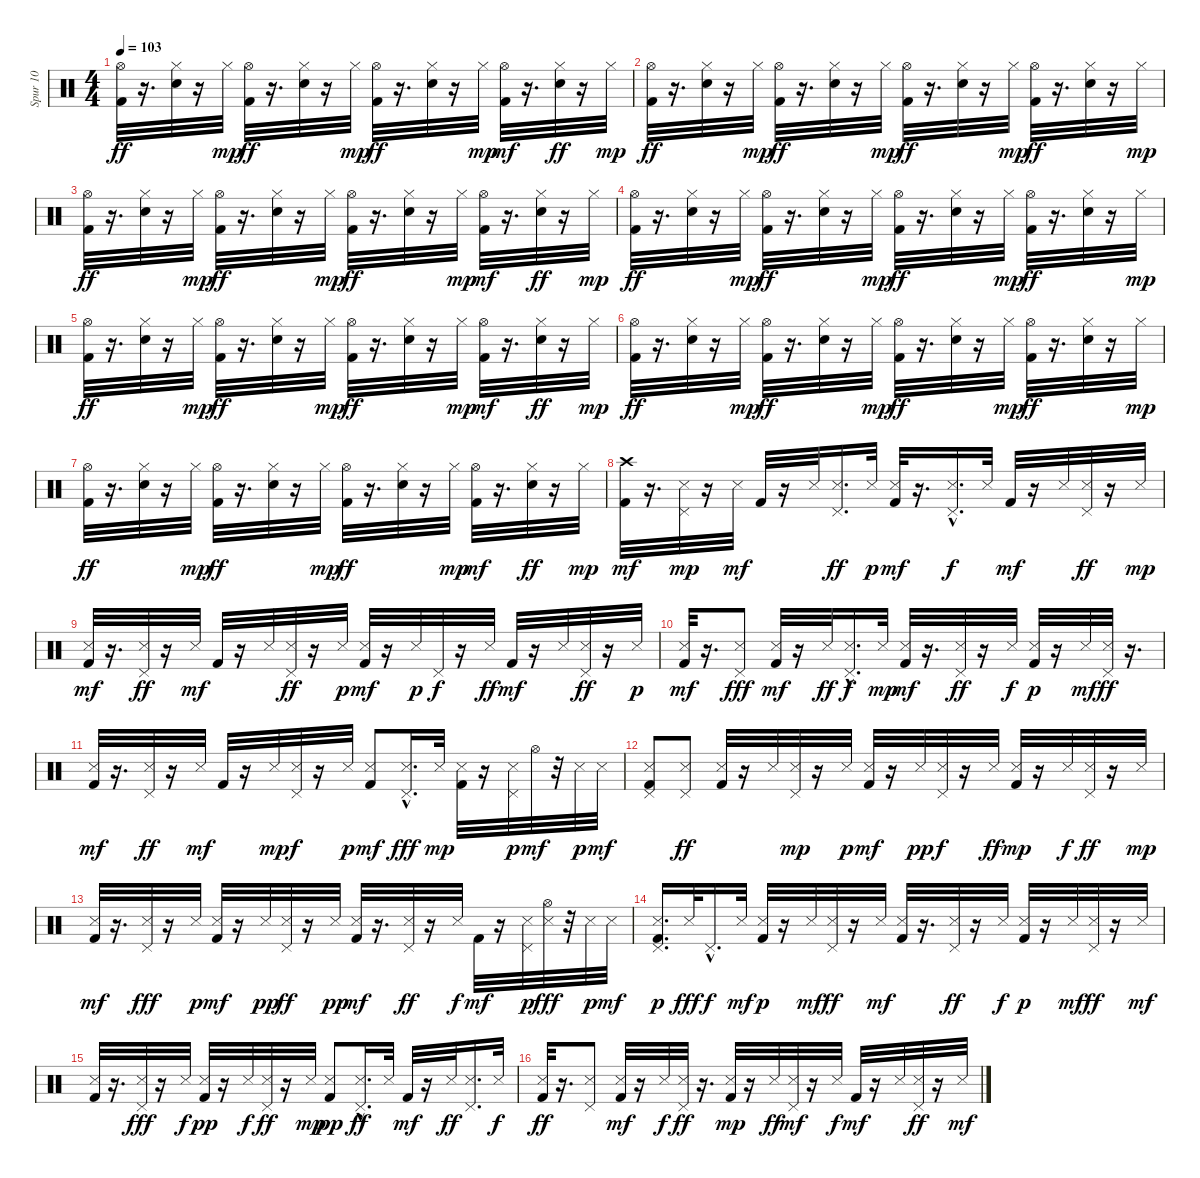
\track ("Spur 10" "Spur 10") {instrument percussion}
\staff {score}
\articulation defaults
\ts (4 4)
\tempo 103
\clef neutral
\ks c
("Kick (hit) 2" "Hi-Hat (open)").32{dy ff} r.16{d} ("Hi-Hat (closed)" "Electric Snare (hit)").32 r.16 "Hi-Hat (closed)".32{dy mp} ("Kick (hit) 2" "Hi-Hat (open)").32{dy ff} r.16{d} ("Hi-Hat (closed)" "Electric Snare (hit)").32 r.16 "Hi-Hat (closed)".32{dy mp} ("Kick (hit) 2" "Hi-Hat (open)").32{dy ff} r.16{d} ("Hi-Hat (closed)" "Electric Snare (hit)").32 r.16 "Hi-Hat (closed)".32{dy mp} ("Kick (hit) 2" "Hi-Hat (open)").32{dy mf} r.16{d} ("Hi-Hat (closed)" "Electric Snare (hit)").32{dy ff} r.16 "Hi-Hat (closed)".32{dy mp} |
("Kick (hit) 2" "Hi-Hat (open)").32{dy ff} r.16{d} ("Hi-Hat (closed)" "Electric Snare (hit)").32 r.16 "Hi-Hat (closed)".32{dy mp} ("Kick (hit) 2" "Hi-Hat (open)").32{dy ff} r.16{d} ("Hi-Hat (closed)" "Electric Snare (hit)").32 r.16 "Hi-Hat (closed)".32{dy mp} ("Kick (hit) 2" "Hi-Hat (open)").32{dy ff} r.16{d} ("Hi-Hat (closed)" "Electric Snare (hit)").32 r.16 "Hi-Hat (closed)".32{dy mp} ("Kick (hit) 2" "Hi-Hat (open)").32{dy ff} r.16{d} ("Hi-Hat (closed)" "Electric Snare (hit)").32 r.16 "Hi-Hat (closed)".32{dy mp} |
("Kick (hit) 2" "Hi-Hat (open)").32{dy ff} r.16{d} ("Hi-Hat (closed)" "Electric Snare (hit)").32 r.16 "Hi-Hat (closed)".32{dy mp} ("Kick (hit) 2" "Hi-Hat (open)").32{dy ff} r.16{d} ("Hi-Hat (closed)" "Electric Snare (hit)").32 r.16 "Hi-Hat (closed)".32{dy mp} ("Kick (hit) 2" "Hi-Hat (open)").32{dy ff} r.16{d} ("Hi-Hat (closed)" "Electric Snare (hit)").32 r.16 "Hi-Hat (closed)".32{dy mp} ("Kick (hit) 2" "Hi-Hat (open)").32{dy mf} r.16{d} ("Hi-Hat (closed)" "Electric Snare (hit)").32{dy ff} r.16 "Hi-Hat (closed)".32{dy mp} |
("Kick (hit) 2" "Hi-Hat (open)").32{dy ff} r.16{d} ("Hi-Hat (closed)" "Electric Snare (hit)").32 r.16 "Hi-Hat (closed)".32{dy mp} ("Kick (hit) 2" "Hi-Hat (open)").32{dy ff} r.16{d} ("Hi-Hat (closed)" "Electric Snare (hit)").32 r.16 "Hi-Hat (closed)".32{dy mp} ("Kick (hit) 2" "Hi-Hat (open)").32{dy ff} r.16{d} ("Hi-Hat (closed)" "Electric Snare (hit)").32 r.16 "Hi-Hat (closed)".32{dy mp} ("Kick (hit) 2" "Hi-Hat (open)").32{dy ff} r.16{d} ("Hi-Hat (closed)" "Electric Snare (hit)").32 r.16 "Hi-Hat (closed)".32{dy mp} |
("Kick (hit) 2" "Hi-Hat (open)").32{dy ff} r.16{d} ("Hi-Hat (closed)" "Electric Snare (hit)").32 r.16 "Hi-Hat (closed)".32{dy mp} ("Kick (hit) 2" "Hi-Hat (open)").32{dy ff} r.16{d} ("Hi-Hat (closed)" "Electric Snare (hit)").32 r.16 "Hi-Hat (closed)".32{dy mp} ("Kick (hit) 2" "Hi-Hat (open)").32{dy ff} r.16{d} ("Hi-Hat (closed)" "Electric Snare (hit)").32 r.16 "Hi-Hat (closed)".32{dy mp} ("Kick (hit) 2" "Hi-Hat (open)").32{dy mf} r.16{d} ("Hi-Hat (closed)" "Electric Snare (hit)").32{dy ff} r.16 "Hi-Hat (closed)".32{dy mp} |
("Kick (hit) 2" "Hi-Hat (open)").32{dy ff} r.16{d} ("Hi-Hat (closed)" "Electric Snare (hit)").32 r.16 "Hi-Hat (closed)".32{dy mp} ("Kick (hit) 2" "Hi-Hat (open)").32{dy ff} r.16{d} ("Hi-Hat (closed)" "Electric Snare (hit)").32 r.16 "Hi-Hat (closed)".32{dy mp} ("Kick (hit) 2" "Hi-Hat (open)").32{dy ff} r.16{d} ("Hi-Hat (closed)" "Electric Snare (hit)").32 r.16 "Hi-Hat (closed)".32{dy mp} ("Kick (hit) 2" "Hi-Hat (open)").32{dy ff} r.16{d} ("Hi-Hat (closed)" "Electric Snare (hit)").32 r.16 "Hi-Hat (closed)".32{dy mp} |
("Kick (hit) 2" "Hi-Hat (open)").32{dy ff} r.16{d} ("Hi-Hat (closed)" "Electric Snare (hit)").32 r.16 "Hi-Hat (closed)".32{dy mp} ("Kick (hit) 2" "Hi-Hat (open)").32{dy ff} r.16{d} ("Hi-Hat (closed)" "Electric Snare (hit)").32 r.16 "Hi-Hat (closed)".32{dy mp} ("Kick (hit) 2" "Hi-Hat (open)").32{dy ff} r.16{d} ("Hi-Hat (closed)" "Electric Snare (hit)").32 r.16 "Hi-Hat (closed)".32{dy mp} ("Kick (hit) 2" "Hi-Hat (open)").32{dy mf} r.16{d} ("Hi-Hat (closed)" "Electric Snare (hit)").32{dy ff} r.16 "Hi-Hat (closed)".32{dy mp} |
("Kick (hit) 2" "Crash high (hit)").32{dy mf} r.16{d} ("Pedal Hi-Hat (hit)" "Metronome (hit)").32{dy mp} r.16 "Metronome (hit)".32{dy mf} "Kick (hit) 2".32 r.16 "Metronome (hit)".32 ("Metronome (hit)" "Pedal Hi-Hat (hit)").16{d dy ff} "Metronome (hit)".32{dy p} ("Metronome (hit)" "Kick (hit) 2").32{dy mf} r.16{d} ("Metronome (hit)" "Pedal Hi-Hat (hit)"{hac}).16{d dy f} "Metronome (hit)".32 "Kick (hit) 2".32{dy mf} r.16 "Metronome (hit)".32 ("Metronome (hit)" "Pedal Hi-Hat (hit)").32{dy ff} r.16 "Metronome (hit)".32{dy mp} |
("Metronome (hit)" "Kick (hit) 2").32{dy mf} r.16{d} ("Metronome (hit)" "Pedal Hi-Hat (hit)").32{dy ff} r.16 "Metronome (hit)".32{dy mf} "Kick (hit) 2".32 r.16 "Metronome (hit)".32 ("Metronome (hit)" "Pedal Hi-Hat (hit)").32{dy ff} r.16 "Metronome (hit)".32{dy p} ("Metronome (hit)" "Kick (hit) 2").32{dy mf} r.16 "Metronome (hit)".32{dy p} "Pedal Hi-Hat (hit)".32{dy f} r.16 "Metronome (hit)".32{dy ff} "Kick (hit) 2".32{dy mf} r.16 "Metronome (hit)".32 ("Metronome (hit)" "Pedal Hi-Hat (hit)").32{dy ff} r.16 "Metronome (hit)".32{dy p} |
("Metronome (hit)" "Kick (hit) 2").32{dy mf} r.16{d} ("Pedal Hi-Hat (hit)" "Metronome (hit)").8{dy fff} ("Kick (hit) 2" "Metronome (hit)").32{dy mf} r.16 "Metronome (hit)".32{dy ff} ("Pedal Hi-Hat (hit)"{hac} "Metronome (hit)").16{d dy f} "Metronome (hit)".32{dy mp} ("Kick (hit) 2" "Metronome (hit)").32{dy mf} r.16{d} ("Metronome (hit)" "Pedal Hi-Hat (hit)").32{dy ff} r.16 "Metronome (hit)".32{dy f} ("Kick (hit) 2" "Metronome (hit)").32{dy p} r.16 "Metronome (hit)".32{dy mf} ("Metronome (hit)" "Pedal Hi-Hat (hit)").32{dy ff} r.16{d} |
("Kick (hit) 2" "Metronome (hit)").32{dy mf} r.16{d} ("Metronome (hit)" "Pedal Hi-Hat (hit)").32{dy ff} r.16 "Metronome (hit)".32{dy mf} "Kick (hit) 2".32 r.16 "Metronome (hit)".32{dy mp} ("Pedal Hi-Hat (hit)" "Metronome (hit)").32{dy f} r.16 "Metronome (hit)".32{dy p} ("Kick (hit) 2" "Metronome (hit)").8{dy mf} ("Metronome (hit)"{hac} "Pedal Hi-Hat (hit)").16{d dy fff} "Metronome (hit)".32{dy mp} ("Kick (hit) 2" "Metronome (hit)").32 r.16 ("Metronome (hit)" "Pedal Hi-Hat (hit)").32{dy p} "Hi-Hat (open)".32{dy mf} r.32 "Metronome (hit)".32{dy p} "Metronome (hit)".32{dy mf} |
("Kick (hit) 2" "Pedal Hi-Hat (hit)" "Metronome (hit)").8 ("Metronome (hit)" "Pedal Hi-Hat (hit)").8{dy ff} ("Kick (hit) 2" "Metronome (hit)").32 r.16 "Metronome (hit)".32 ("Pedal Hi-Hat (hit)" "Metronome (hit)").32{dy mp} r.16 "Metronome (hit)".32{dy p} ("Kick (hit) 2" "Metronome (hit)").32{dy mf} r.16 "Metronome (hit)".32{dy pp} ("Pedal Hi-Hat (hit)" "Metronome (hit)").32{dy f} r.16 "Metronome (hit)".32{dy ff} ("Kick (hit) 2" "Metronome (hit)").32{dy mp} r.16 "Metronome (hit)".32{dy f} ("Metronome (hit)" "Pedal Hi-Hat (hit)").32{dy ff} r.16 "Metronome (hit)".32{dy mp} |
("Metronome (hit)" "Kick (hit) 2").32{dy mf} r.16{d} ("Metronome (hit)" "Pedal Hi-Hat (hit)").32{dy fff} r.16 "Metronome (hit)".32{dy p} ("Metronome (hit)" "Kick (hit) 2").32{dy mf} r.16 "Metronome (hit)".32{dy pp} ("Metronome (hit)" "Pedal Hi-Hat (hit)").32{dy ff} r.16 "Metronome (hit)".32{dy pp} ("Metronome (hit)" "Kick (hit) 2").32{dy mf} r.16{d} ("Metronome (hit)" "Pedal Hi-Hat (hit)").32{dy ff} r.16 "Metronome (hit)".32{dy f} "Kick (hit) 2".32{dy mf} r.16 ("Metronome (hit)" "Pedal Hi-Hat (hit)").32{dy p} ("Metronome (hit)" "Hi-Hat (open)").32{dy fff} r.32 "Metronome (hit)".32{dy p} "Metronome (hit)".32{dy mf} |
("Metronome (hit)" "Kick (hit) 2" "Pedal Hi-Hat (hit)").16{d dy p} "Metronome (hit)".32{dy fff} "Pedal Hi-Hat (hit)"{hac}.16{d dy f} "Metronome (hit)".32{dy mf} ("Kick (hit) 2" "Metronome (hit)").32{dy p} r.16 "Metronome (hit)".32{dy mf} ("Pedal Hi-Hat (hit)" "Metronome (hit)").32{dy ff} r.16 "Metronome (hit)".32{dy mf} ("Kick (hit) 2" "Metronome (hit)").32 r.16{d} ("Pedal Hi-Hat (hit)" "Metronome (hit)").32{dy ff} r.16 "Metronome (hit)".32{dy f} ("Kick (hit) 2" "Metronome (hit)").32{dy p} r.16 "Metronome (hit)".32{dy mf} ("Pedal Hi-Hat (hit)" "Metronome (hit)").32{dy ff} r.16 "Metronome (hit)".32{dy mf} |
("Kick (hit) 2" "Metronome (hit)").32 r.16{d} ("Pedal Hi-Hat (hit)" "Metronome (hit)").32{dy fff} r.16 "Metronome (hit)".32{dy f} ("Kick (hit) 2" "Metronome (hit)").32{dy pp} r.16 "Metronome (hit)".32{dy f} ("Pedal Hi-Hat (hit)" "Metronome (hit)").32{dy ff} r.16 "Metronome (hit)".32{dy mp} ("Kick (hit) 2" "Metronome (hit)").8{dy pp} ("Metronome (hit)"{hac} "Pedal Hi-Hat (hit)").16{d dy ff} "Metronome (hit)".32 "Kick (hit) 2".32{dy mf} r.16 "Metronome (hit)".32{dy ff} ("Pedal Hi-Hat (hit)" "Metronome (hit)").16{d} "Metronome (hit)".32{dy f} |
("Kick (hit) 2" "Metronome (hit)").32{dy ff} r.16{d} ("Pedal Hi-Hat (hit)" "Metronome (hit)").8 ("Kick (hit) 2" "Metronome (hit)").32{dy mf} r.16 "Metronome (hit)".32{dy f} ("Metronome (hit)" "Pedal Hi-Hat (hit)").32{dy ff} r.16{d} ("Kick (hit) 2" "Metronome (hit)").32{dy mp} r.16 "Metronome (hit)".32{dy ff} ("Pedal Hi-Hat (hit)" "Metronome (hit)").32{dy mf} r.16 "Metronome (hit)".32{dy f} "Kick (hit) 2".32{dy mf} r.16 "Metronome (hit)".32 ("Metronome (hit)" "Pedal Hi-Hat (hit)").32{dy ff} r.16 "Metronome (hit)".32{dy mf}
